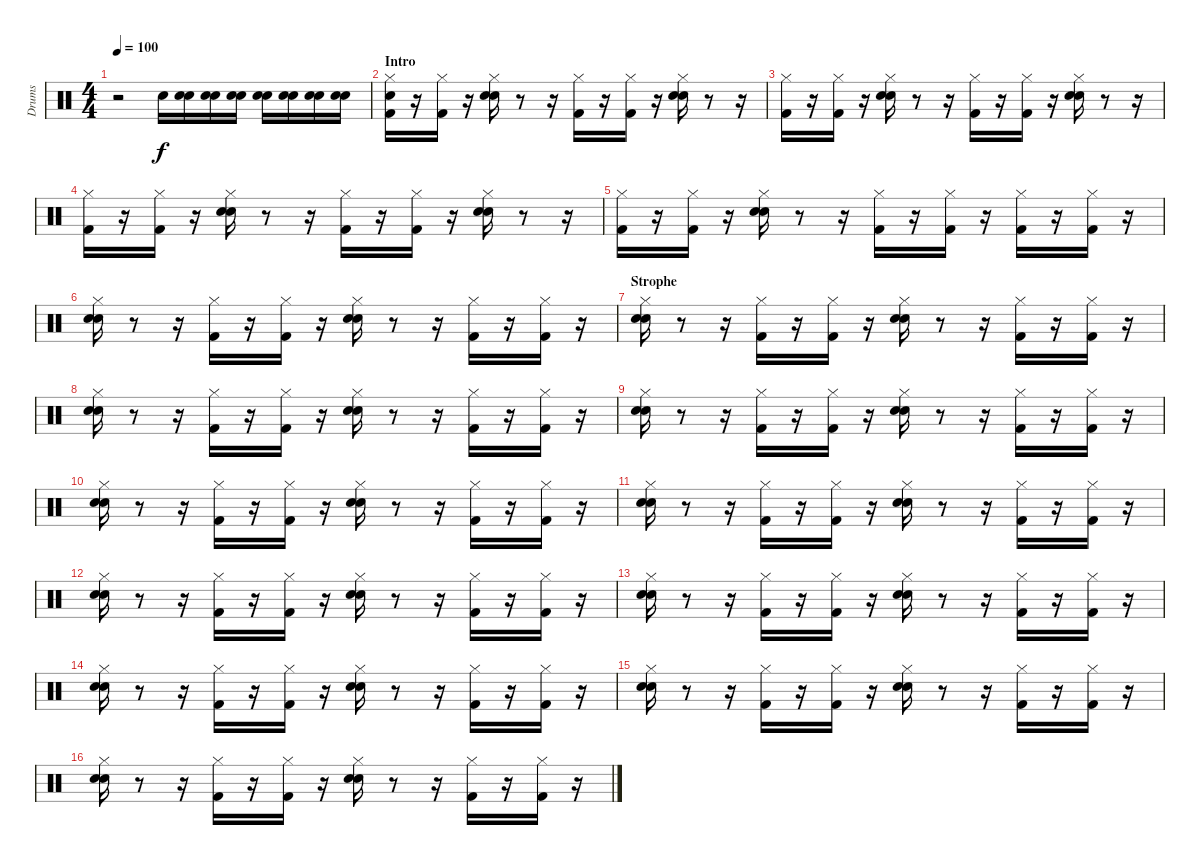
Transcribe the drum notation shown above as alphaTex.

\track ("Drums" "Drums") {instrument percussion}
\staff {score}
\articulation defaults
\ts (4 4)
\tempo 100
\clef neutral
\ks c
r.2{dy f} "Snare (hit) 2".16 ("Snare (hit)" "Snare (hit) 2").16 ("Snare (hit)" "Snare (hit) 2").16 ("Snare (hit)" "Snare (hit) 2").16 ("Snare (hit)" "Snare (hit) 2").16 ("Snare (hit)" "Snare (hit) 2").16 ("Snare (hit)" "Snare (hit) 2").16 ("Snare (hit)" "Snare (hit) 2").16 |
\section ("" "Intro")
("Snare (hit)" "Kick (hit) 2" "Hi-Hat (closed)").16 r.16 ("Kick (hit) 2" "Hi-Hat (closed)").16 r.16 ("Hand Clap (hit)" "Hi-Hat (closed)" "Snare (hit) 2").16 r.8 r.16 ("Hi-Hat (closed)" "Kick (hit) 2").16 r.16 ("Hi-Hat (closed)" "Kick (hit) 2").16 r.16 ("Snare (hit) 2" "Hand Clap (hit)" "Hi-Hat (closed)").16 r.8 r.16 |
("Kick (hit) 2" "Hi-Hat (closed)").16 r.16 ("Hi-Hat (closed)" "Kick (hit) 2").16 r.16 ("Hand Clap (hit)" "Hi-Hat (closed)" "Snare (hit) 2").16 r.8 r.16 ("Kick (hit) 2" "Hi-Hat (closed)").16 r.16 ("Hi-Hat (closed)" "Kick (hit) 2").16 r.16 ("Snare (hit) 2" "Hand Clap (hit)" "Hi-Hat (closed)").16 r.8 r.16 |
("Hi-Hat (closed)" "Kick (hit) 2").16 r.16 ("Hi-Hat (closed)" "Kick (hit) 2").16 r.16 ("Snare (hit) 2" "Hand Clap (hit)" "Hi-Hat (closed)").16 r.8 r.16 ("Hi-Hat (closed)" "Kick (hit) 2").16 r.16 ("Kick (hit) 2" "Hi-Hat (closed)").16 r.16 ("Snare (hit) 2" "Hand Clap (hit)" "Hi-Hat (closed)").16 r.8 r.16 |
("Kick (hit) 2" "Hi-Hat (closed)").16 r.16 ("Hi-Hat (closed)" "Kick (hit) 2").16 r.16 ("Snare (hit) 2" "Hi-Hat (closed)" "Hand Clap (hit)").16 r.8 r.16 ("Kick (hit) 2" "Hi-Hat (closed)").16 r.16 ("Hi-Hat (closed)" "Kick (hit) 2").16 r.16 ("Hi-Hat (closed)" "Kick (hit) 2").16 r.16 ("Hi-Hat (closed)" "Kick (hit) 2").16 r.16 |
("Hi-Hat (closed)" "Hand Clap (hit)" "Snare (hit) 2").16 r.8 r.16 ("Hi-Hat (closed)" "Kick (hit) 2").16 r.16 ("Hi-Hat (closed)" "Kick (hit) 2").16 r.16 ("Hand Clap (hit)" "Snare (hit) 2" "Hi-Hat (closed)").16 r.8 r.16 ("Kick (hit) 2" "Hi-Hat (closed)").16 r.16 ("Kick (hit) 2" "Hi-Hat (closed)").16 r.16 |
\section ("" "Strophe")
("Hand Clap (hit)" "Hi-Hat (closed)" "Snare (hit) 2").16 r.8 r.16 ("Kick (hit) 2" "Hi-Hat (closed)").16 r.16 ("Hi-Hat (closed)" "Kick (hit) 2").16 r.16 ("Snare (hit) 2" "Hi-Hat (closed)" "Hand Clap (hit)").16 r.8 r.16 ("Kick (hit) 2" "Hi-Hat (closed)").16 r.16 ("Kick (hit) 2" "Hi-Hat (closed)").16 r.16 |
("Hi-Hat (closed)" "Snare (hit) 2" "Hand Clap (hit)").16 r.8 r.16 ("Kick (hit) 2" "Hi-Hat (closed)").16 r.16 ("Kick (hit) 2" "Hi-Hat (closed)").16 r.16 ("Hi-Hat (closed)" "Hand Clap (hit)" "Snare (hit) 2").16 r.8 r.16 ("Hi-Hat (closed)" "Kick (hit) 2").16 r.16 ("Hi-Hat (closed)" "Kick (hit) 2").16 r.16 |
("Hand Clap (hit)" "Hi-Hat (closed)" "Snare (hit) 2").16 r.8 r.16 ("Hi-Hat (closed)" "Kick (hit) 2").16 r.16 ("Kick (hit) 2" "Hi-Hat (closed)").16 r.16 ("Hi-Hat (closed)" "Snare (hit) 2" "Hand Clap (hit)").16 r.8 r.16 ("Kick (hit) 2" "Hi-Hat (closed)").16 r.16 ("Kick (hit) 2" "Hi-Hat (closed)").16 r.16 |
("Hi-Hat (closed)" "Snare (hit) 2" "Hand Clap (hit)").16 r.8 r.16 ("Kick (hit) 2" "Hi-Hat (closed)").16 r.16 ("Hi-Hat (closed)" "Kick (hit) 2").16 r.16 ("Hand Clap (hit)" "Hi-Hat (closed)" "Snare (hit) 2").16 r.8 r.16 ("Kick (hit) 2" "Hi-Hat (closed)").16 r.16 ("Kick (hit) 2" "Hi-Hat (closed)").16 r.16 |
("Hi-Hat (closed)" "Hand Clap (hit)" "Snare (hit) 2").16 r.8 r.16 ("Hi-Hat (closed)" "Kick (hit) 2").16 r.16 ("Kick (hit) 2" "Hi-Hat (closed)").16 r.16 ("Snare (hit) 2" "Hi-Hat (closed)" "Hand Clap (hit)").16 r.8 r.16 ("Hi-Hat (closed)" "Kick (hit) 2").16 r.16 ("Hi-Hat (closed)" "Kick (hit) 2").16 r.16 |
("Hand Clap (hit)" "Snare (hit) 2" "Hi-Hat (closed)").16 r.8 r.16 ("Kick (hit) 2" "Hi-Hat (closed)").16 r.16 ("Hi-Hat (closed)" "Kick (hit) 2").16 r.16 ("Hand Clap (hit)" "Snare (hit) 2" "Hi-Hat (closed)").16 r.8 r.16 ("Kick (hit) 2" "Hi-Hat (closed)").16 r.16 ("Kick (hit) 2" "Hi-Hat (closed)").16 r.16 |
("Snare (hit) 2" "Hi-Hat (closed)" "Hand Clap (hit)").16 r.8 r.16 ("Hi-Hat (closed)" "Kick (hit) 2").16 r.16 ("Hi-Hat (closed)" "Kick (hit) 2").16 r.16 ("Hi-Hat (closed)" "Hand Clap (hit)" "Snare (hit) 2").16 r.8 r.16 ("Hi-Hat (closed)" "Kick (hit) 2").16 r.16 ("Kick (hit) 2" "Hi-Hat (closed)").16 r.16 |
("Hand Clap (hit)" "Snare (hit) 2" "Hi-Hat (closed)").16 r.8 r.16 ("Hi-Hat (closed)" "Kick (hit) 2").16 r.16 ("Kick (hit) 2" "Hi-Hat (closed)").16 r.16 ("Hi-Hat (closed)" "Snare (hit) 2" "Hand Clap (hit)").16 r.8 r.16 ("Kick (hit) 2" "Hi-Hat (closed)").16 r.16 ("Hi-Hat (closed)" "Kick (hit) 2").16 r.16 |
("Snare (hit) 2" "Hand Clap (hit)" "Hi-Hat (closed)").16 r.8 r.16 ("Kick (hit) 2" "Hi-Hat (closed)").16 r.16 ("Hi-Hat (closed)" "Kick (hit) 2").16 r.16 ("Hi-Hat (closed)" "Hand Clap (hit)" "Snare (hit) 2").16 r.8 r.16 ("Kick (hit) 2" "Hi-Hat (closed)").16 r.16 ("Hi-Hat (closed)" "Kick (hit) 2").16 r.16 |
("Snare (hit) 2" "Hi-Hat (closed)" "Hand Clap (hit)").16 r.8 r.16 ("Hi-Hat (closed)" "Kick (hit) 2").16 r.16 ("Kick (hit) 2" "Hi-Hat (closed)").16 r.16 ("Snare (hit) 2" "Hand Clap (hit)" "Hi-Hat (closed)").16 r.8 r.16 ("Hi-Hat (closed)" "Kick (hit) 2").16 r.16 ("Kick (hit) 2" "Hi-Hat (closed)").16 r.16
